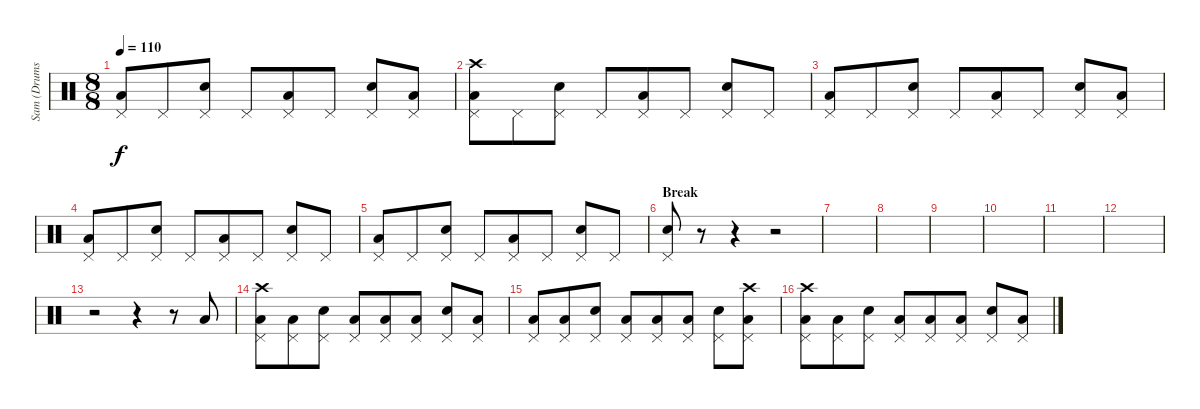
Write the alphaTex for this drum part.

\track ("Sam (Drums)" "Sam (Drums") {instrument percussion}
\staff {score}
\articulation defaults
\ts (8 8)
\tempo 110
\clef neutral
\ks c
("Low Tom (hit)" "Pedal Hi-Hat (hit)").8{dy f} "Pedal Hi-Hat (hit)".8 ("Snare (hit) 2" "Pedal Hi-Hat (hit)").8 "Pedal Hi-Hat (hit)".8 ("Low Tom (hit)" "Pedal Hi-Hat (hit)").8 "Pedal Hi-Hat (hit)".8 ("Snare (hit) 2" "Pedal Hi-Hat (hit)").8 ("Low Tom (hit)" "Pedal Hi-Hat (hit)").8 |
("Crash high (hit)" "Low Tom (hit)" "Pedal Hi-Hat (hit)").8 "Pedal Hi-Hat (hit)".8 ("Snare (hit) 2" "Pedal Hi-Hat (hit)").8 "Pedal Hi-Hat (hit)".8 ("Low Tom (hit)" "Pedal Hi-Hat (hit)").8 "Pedal Hi-Hat (hit)".8 ("Snare (hit) 2" "Pedal Hi-Hat (hit)").8 "Pedal Hi-Hat (hit)".8 |
("Low Tom (hit)" "Pedal Hi-Hat (hit)").8 "Pedal Hi-Hat (hit)".8 ("Snare (hit) 2" "Pedal Hi-Hat (hit)").8 "Pedal Hi-Hat (hit)".8 ("Low Tom (hit)" "Pedal Hi-Hat (hit)").8 "Pedal Hi-Hat (hit)".8 ("Snare (hit) 2" "Pedal Hi-Hat (hit)").8 ("Low Tom (hit)" "Pedal Hi-Hat (hit)").8 |
("Low Tom (hit)" "Pedal Hi-Hat (hit)").8 "Pedal Hi-Hat (hit)".8 ("Snare (hit) 2" "Pedal Hi-Hat (hit)").8 "Pedal Hi-Hat (hit)".8 ("Low Tom (hit)" "Pedal Hi-Hat (hit)").8 "Pedal Hi-Hat (hit)".8 ("Snare (hit) 2" "Pedal Hi-Hat (hit)").8 "Pedal Hi-Hat (hit)".8 |
("Low Tom (hit)" "Pedal Hi-Hat (hit)").8 "Pedal Hi-Hat (hit)".8 ("Snare (hit) 2" "Pedal Hi-Hat (hit)").8 "Pedal Hi-Hat (hit)".8 ("Low Tom (hit)" "Pedal Hi-Hat (hit)").8 "Pedal Hi-Hat (hit)".8 ("Snare (hit) 2" "Pedal Hi-Hat (hit)").8 "Pedal Hi-Hat (hit)".8 |
\section ("" "Break")
("Snare (hit) 2" "Pedal Hi-Hat (hit)").8 r.8 r.4 r.2 |
|
|
|
|
|
|
r.2 r.4 r.8 "Low Tom (hit)".8 |
("Crash high (hit)" "Low Tom (hit)" "Pedal Hi-Hat (hit)").8 ("Low Tom (hit)" "Pedal Hi-Hat (hit)").8 ("Snare (hit) 2" "Pedal Hi-Hat (hit)").8 ("Low Tom (hit)" "Pedal Hi-Hat (hit)").8 ("Low Tom (hit)" "Pedal Hi-Hat (hit)").8 ("Low Tom (hit)" "Pedal Hi-Hat (hit)").8 ("Snare (hit) 2" "Pedal Hi-Hat (hit)").8 ("Low Tom (hit)" "Pedal Hi-Hat (hit)").8 |
("Low Tom (hit)" "Pedal Hi-Hat (hit)").8 ("Low Tom (hit)" "Pedal Hi-Hat (hit)").8 ("Snare (hit) 2" "Pedal Hi-Hat (hit)").8 ("Low Tom (hit)" "Pedal Hi-Hat (hit)").8 ("Low Tom (hit)" "Pedal Hi-Hat (hit)").8 ("Low Tom (hit)" "Pedal Hi-Hat (hit)").8 ("Snare (hit) 2" "Pedal Hi-Hat (hit)").8 ("Crash high (hit)" "Low Tom (hit)" "Pedal Hi-Hat (hit)").8 |
("Crash high (hit)" "Low Tom (hit)" "Pedal Hi-Hat (hit)").8 ("Low Tom (hit)" "Pedal Hi-Hat (hit)").8 ("Snare (hit) 2" "Pedal Hi-Hat (hit)").8 ("Low Tom (hit)" "Pedal Hi-Hat (hit)").8 ("Low Tom (hit)" "Pedal Hi-Hat (hit)").8 ("Low Tom (hit)" "Pedal Hi-Hat (hit)").8 ("Snare (hit) 2" "Pedal Hi-Hat (hit)").8 ("Low Tom (hit)" "Pedal Hi-Hat (hit)").8
